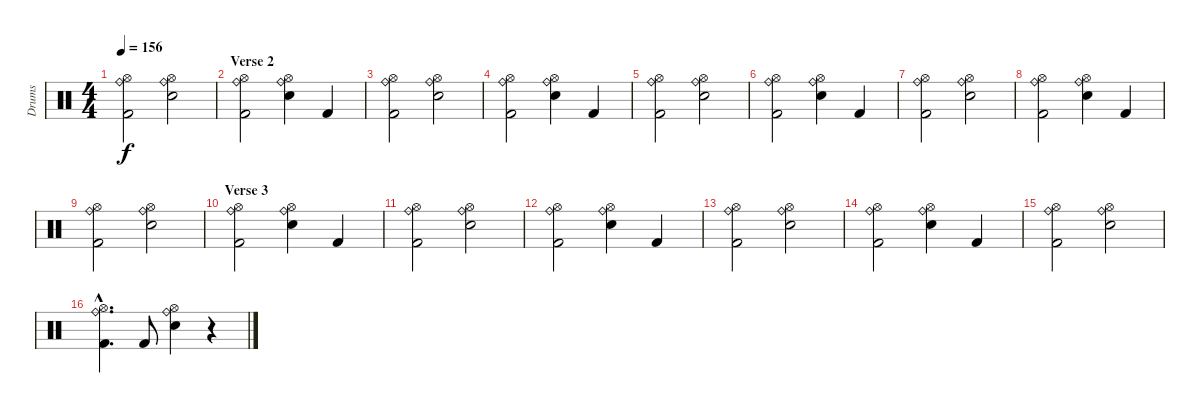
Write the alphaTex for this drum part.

\track ("Drums" "Drums") {instrument percussion}
\staff {score}
\articulation defaults
\ts (4 4)
\tempo 156
\clef neutral
\ks c
("Kick (hit) 2" "Ride (bell)" "Hi-Hat (open)").2{dy f} ("Electric Snare (hit)" "Ride (bell)" "Hi-Hat (open)").2 |
\section ("" "Verse 2")
("Kick (hit) 2" "Ride (bell)" "Hi-Hat (open)").2 ("Electric Snare (hit)" "Ride (bell)" "Hi-Hat (open)").4 "Kick (hit) 2".4 |
("Kick (hit) 2" "Ride (bell)" "Hi-Hat (open)").2 ("Electric Snare (hit)" "Ride (bell)" "Hi-Hat (open)").2 |
("Kick (hit) 2" "Ride (bell)" "Hi-Hat (open)").2 ("Electric Snare (hit)" "Ride (bell)" "Hi-Hat (open)").4 "Kick (hit) 2".4 |
("Kick (hit) 2" "Ride (bell)" "Hi-Hat (open)").2 ("Electric Snare (hit)" "Ride (bell)" "Hi-Hat (open)").2 |
("Kick (hit) 2" "Ride (bell)" "Hi-Hat (open)").2 ("Electric Snare (hit)" "Ride (bell)" "Hi-Hat (open)").4 "Kick (hit) 2".4 |
("Kick (hit) 2" "Ride (bell)" "Hi-Hat (open)").2 ("Electric Snare (hit)" "Ride (bell)" "Hi-Hat (open)").2 |
("Kick (hit) 2" "Ride (bell)" "Hi-Hat (open)").2 ("Electric Snare (hit)" "Ride (bell)" "Hi-Hat (open)").4 "Kick (hit) 2".4 |
("Kick (hit) 2" "Ride (bell)" "Hi-Hat (open)").2 ("Electric Snare (hit)" "Ride (bell)" "Hi-Hat (open)").2 |
\section ("" "Verse 3")
("Kick (hit) 2" "Ride (bell)" "Hi-Hat (open)").2 ("Electric Snare (hit)" "Ride (bell)" "Hi-Hat (open)").4 "Kick (hit) 2".4 |
("Kick (hit) 2" "Ride (bell)" "Hi-Hat (open)").2 ("Electric Snare (hit)" "Ride (bell)" "Hi-Hat (open)").2 |
("Kick (hit) 2" "Ride (bell)" "Hi-Hat (open)").2 ("Electric Snare (hit)" "Ride (bell)" "Hi-Hat (open)").4 "Kick (hit) 2".4 |
("Kick (hit) 2" "Ride (bell)" "Hi-Hat (open)").2 ("Electric Snare (hit)" "Ride (bell)" "Hi-Hat (open)").2 |
("Kick (hit) 2" "Ride (bell)" "Hi-Hat (open)").2 ("Electric Snare (hit)" "Ride (bell)" "Hi-Hat (open)").4 "Kick (hit) 2".4 |
("Kick (hit) 2" "Ride (bell)" "Hi-Hat (open)").2 ("Electric Snare (hit)" "Ride (bell)" "Hi-Hat (open)").2 |
("Kick (hit) 2"{hac} "Ride (bell)"{hac} "Hi-Hat (open)"{hac}).4{d} "Kick (hit) 2".8 ("Electric Snare (hit)" "Ride (bell)" "Hi-Hat (open)").4 r.4
